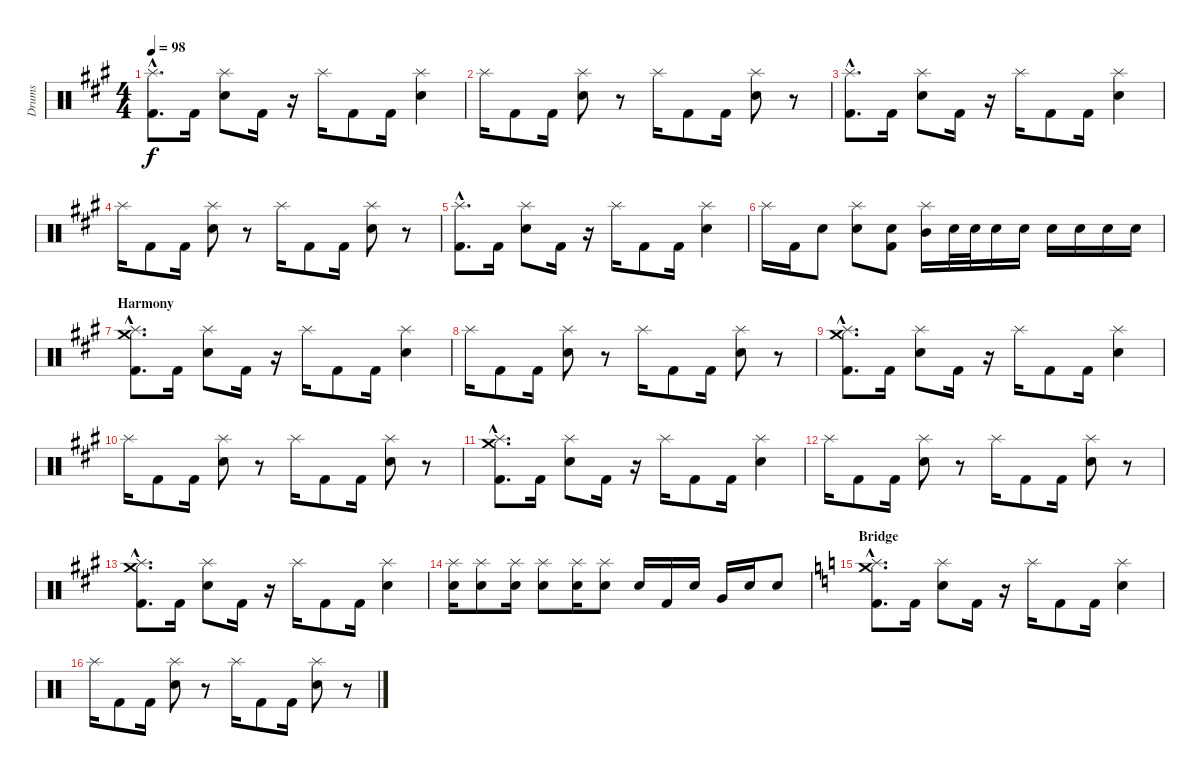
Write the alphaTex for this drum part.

\track ("Drums" "Drums") {instrument percussion}
\staff {score}
\articulation defaults
\ts (4 4)
\tempo 98
\clef neutral
\ks a
("Splash (hit)"{hac} "Kick (hit) 2"{hac}).8{d dy f} "Kick (hit) 2".16 ("Splash (hit)" "Snare (hit) 2").8 "Kick (hit) 2".16 r.16 "Splash (hit)".16 "Kick (hit) 2".8 "Kick (hit) 2".16 ("Splash (hit)" "Snare (hit) 2").4 |
"Splash (hit)".16 "Kick (hit) 2".8 "Kick (hit) 2".16 ("Splash (hit)" "Snare (hit) 2").8 r.8 "Splash (hit)".16 "Kick (hit) 2".8 "Kick (hit) 2".16 ("Splash (hit)" "Snare (hit) 2").8 r.8 |
("Splash (hit)"{hac} "Kick (hit) 2"{hac}).8{d} "Kick (hit) 2".16 ("Splash (hit)" "Snare (hit) 2").8 "Kick (hit) 2".16 r.16 "Splash (hit)".16 "Kick (hit) 2".8 "Kick (hit) 2".16 ("Splash (hit)" "Snare (hit) 2").4 |
"Splash (hit)".16 "Kick (hit) 2".8 "Kick (hit) 2".16 ("Splash (hit)" "Snare (hit) 2").8 r.8 "Splash (hit)".16 "Kick (hit) 2".8 "Kick (hit) 2".16 ("Splash (hit)" "Snare (hit) 2").8 r.8 |
("Splash (hit)"{hac} "Kick (hit) 2"{hac}).8{d} "Kick (hit) 2".16 ("Splash (hit)" "Snare (hit) 2").8 "Kick (hit) 2".16 r.16 "Splash (hit)".16 "Kick (hit) 2".8 "Kick (hit) 2".16 ("Splash (hit)" "Snare (hit) 2").4 |
"Splash (hit)".16 "Kick (hit) 2".16 "Snare (hit) 2".8 ("Splash (hit)" "Snare (hit) 2").8 ("Snare (hit) 2" "Kick (hit) 2").8 ("Splash (hit)" "Mid Tom (hit)").16 "Snare (hit) 2".32 "Snare (hit) 2".32 "Snare (hit) 2".16 "Snare (hit) 2".16 "Snare (hit) 2".16 "Snare (hit) 2".16 "Snare (hit) 2".16 "Snare (hit) 2".16 |
\section ("" "Harmony")
("Splash (hit)"{hac} "Crash medium (hit)"{hac} "Kick (hit) 2"{hac}).8{d} "Kick (hit) 2".16 ("Splash (hit)" "Snare (hit) 2").8 "Kick (hit) 2".16 r.16 "Splash (hit)".16 "Kick (hit) 2".8 "Kick (hit) 2".16 ("Splash (hit)" "Snare (hit) 2").4 |
"Splash (hit)".16 "Kick (hit) 2".8 "Kick (hit) 2".16 ("Splash (hit)" "Snare (hit) 2").8 r.8 "Splash (hit)".16 "Kick (hit) 2".8 "Kick (hit) 2".16 ("Splash (hit)" "Snare (hit) 2").8 r.8 |
("Splash (hit)"{hac} "Crash medium (hit)"{hac} "Kick (hit) 2"{hac}).8{d} "Kick (hit) 2".16 ("Splash (hit)" "Snare (hit) 2").8 "Kick (hit) 2".16 r.16 "Splash (hit)".16 "Kick (hit) 2".8 "Kick (hit) 2".16 ("Splash (hit)" "Snare (hit) 2").4 |
"Splash (hit)".16 "Kick (hit) 2".8 "Kick (hit) 2".16 ("Splash (hit)" "Snare (hit) 2").8 r.8 "Splash (hit)".16 "Kick (hit) 2".8 "Kick (hit) 2".16 ("Splash (hit)" "Snare (hit) 2").8 r.8 |
("Splash (hit)"{hac} "Crash medium (hit)"{hac} "Kick (hit) 2"{hac}).8{d} "Kick (hit) 2".16 ("Splash (hit)" "Snare (hit) 2").8 "Kick (hit) 2".16 r.16 "Splash (hit)".16 "Kick (hit) 2".8 "Kick (hit) 2".16 ("Splash (hit)" "Snare (hit) 2").4 |
"Splash (hit)".16 "Kick (hit) 2".8 "Kick (hit) 2".16 ("Splash (hit)" "Snare (hit) 2").8 r.8 "Splash (hit)".16 "Kick (hit) 2".8 "Kick (hit) 2".16 ("Splash (hit)" "Snare (hit) 2").8 r.8 |
("Splash (hit)"{hac} "Crash medium (hit)"{hac} "Kick (hit) 2"{hac}).8{d} "Kick (hit) 2".16 ("Splash (hit)" "Snare (hit) 2").8 "Kick (hit) 2".16 r.16 "Splash (hit)".16 "Kick (hit) 2".8 "Kick (hit) 2".16 ("Splash (hit)" "Snare (hit) 2").4 |
("Splash (hit)" "Snare (hit) 2").16 ("Splash (hit)" "Snare (hit) 2").8 ("Splash (hit)" "Snare (hit) 2").16 ("Splash (hit)" "Snare (hit) 2").8 ("Splash (hit)" "Snare (hit) 2").16 ("Splash (hit)" "Snare (hit) 2").8 "Snare (hit) 2".16 "Kick (hit) 2".16 "Snare (hit) 2".16 "Very Low Tom (hit)".16 "Snare (hit) 2".16 "Snare (hit) 2".8 |
\section ("" "Bridge")
\ks c
("Splash (hit)"{hac} "Crash medium (hit)"{hac} "Kick (hit) 2"{hac}).8{d} "Kick (hit) 2".16 ("Splash (hit)" "Snare (hit) 2").8 "Kick (hit) 2".16 r.16 "Splash (hit)".16 "Kick (hit) 2".8 "Kick (hit) 2".16 ("Splash (hit)" "Snare (hit) 2").4 |
"Splash (hit)".16 "Kick (hit) 2".8 "Kick (hit) 2".16 ("Splash (hit)" "Snare (hit) 2").8 r.8 "Splash (hit)".16 "Kick (hit) 2".8 "Kick (hit) 2".16 ("Splash (hit)" "Snare (hit) 2").8 r.8
